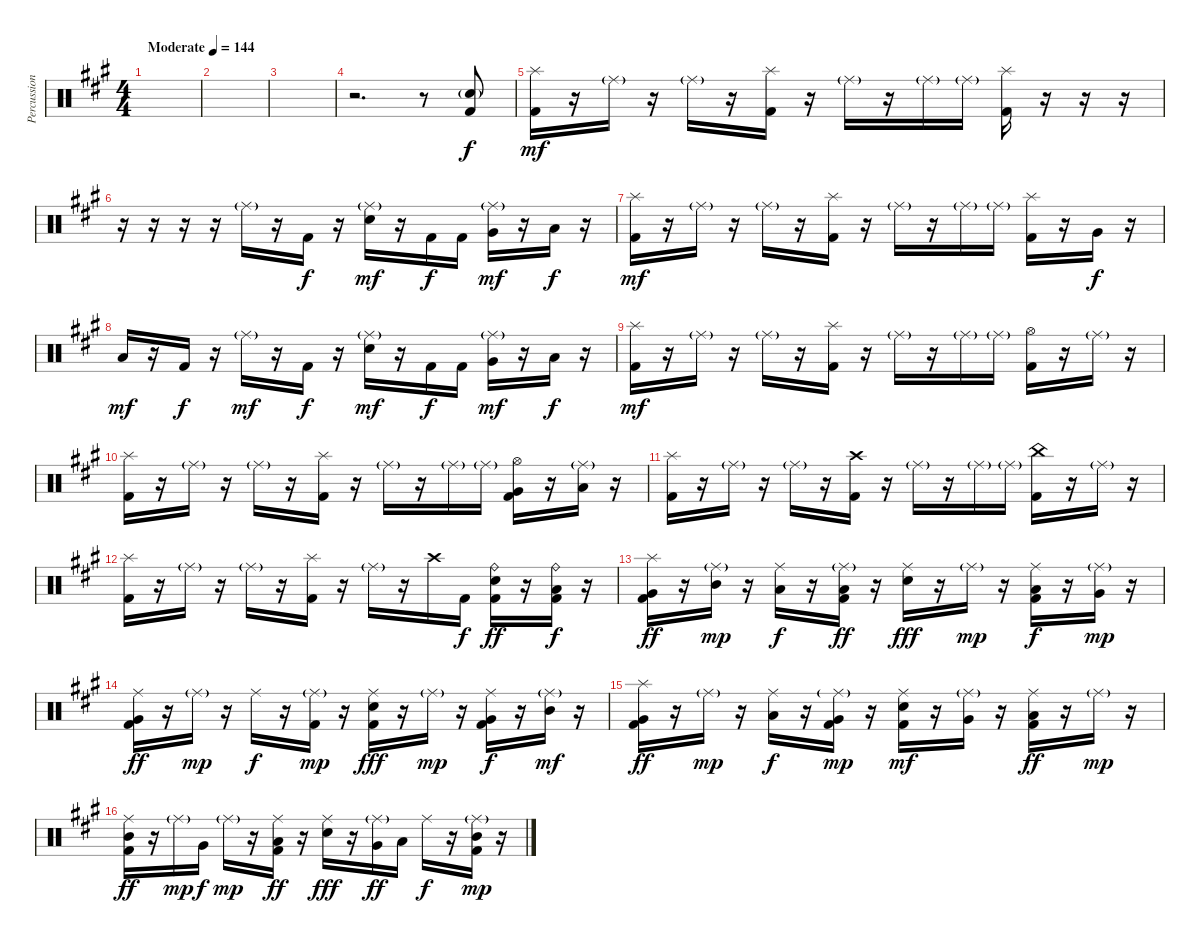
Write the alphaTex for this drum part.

\track ("Percussion" "Percussion") {instrument percussion}
\staff {score}
\articulation defaults
\ts (4 4)
\tempo (144 "Moderate")
\clef neutral
\ks f#minor
|
|
|
r.2{d} r.8 ("Snare (hit) 2"{g} "Kick (hit) 2").8 |
("Splash (hit)" "Kick (hit) 2").16{dy mf} r.16 "Ride (middle)"{g}.16 r.16 "Ride (middle)"{g}.16 r.16 ("Splash (hit)" "Kick (hit) 2").16 r.16 "Ride (middle)"{g}.16 r.16 "Ride (middle)"{g}.16 "Ride (middle)"{g}.16 ("Splash (hit)" "Kick (hit) 2").16 r.16 r.16 r.16 |
r.16 r.16 r.16 r.16 "Ride (middle)"{g}.16 r.16 "Kick (hit) 2".16{dy f} r.16 ("Ride (middle)"{g} "Snare (hit) 2").16{dy mf} r.16 "Kick (hit) 2".16{dy f} "Kick (hit) 2".16 ("Ride (middle)"{g} "Very Low Tom (hit)").16{dy mf} r.16 "Low Floor Tom (hit)".16{dy f} r.16 |
("Splash (hit)" "Kick (hit) 2").16{dy mf} r.16 "Ride (middle)"{g}.16 r.16 "Ride (middle)"{g}.16 r.16 ("Splash (hit)" "Kick (hit) 2").16 r.16 "Ride (middle)"{g}.16 r.16 "Ride (middle)"{g}.16 "Ride (middle)"{g}.16 ("Splash (hit)" "Kick (hit) 2").16 r.16 "Very Low Tom (hit)".16{dy f} r.16 |
"Low Floor Tom (hit)".16{dy mf} r.16 "Kick (hit) 2".16{dy f} r.16 "Ride (middle)"{g}.16{dy mf} r.16 "Kick (hit) 2".16{dy f} r.16 ("Ride (middle)"{g} "Snare (hit) 2").16{dy mf} r.16 "Kick (hit) 2".16{dy f} "Kick (hit) 2".16 ("Ride (middle)"{g} "Very Low Tom (hit)").16{dy mf} r.16 "Low Floor Tom (hit)".16{dy f} r.16 |
("Splash (hit)" "Kick (hit) 2").16{dy mf} r.16 "Ride (middle)"{g}.16 r.16 "Ride (middle)"{g}.16 r.16 ("Splash (hit)" "Kick (hit) 2").16 r.16 "Ride (middle)"{g}.16 r.16 "Ride (middle)"{g}.16 "Ride (middle)"{g}.16 ("Hi-Hat (open)" "Kick (hit) 2").16 r.16 "Ride (middle)"{g}.16 r.16 |
("Splash (hit)" "Kick (hit) 2").16 r.16 "Ride (middle)"{g}.16 r.16 "Ride (middle)"{g}.16 r.16 ("Splash (hit)" "Kick (hit) 2").16 r.16 "Ride (middle)"{g}.16 r.16 "Ride (middle)"{g}.16 "Ride (middle)"{g}.16 ("Hi-Hat (open)" "Very Low Tom (hit)" "Kick (hit) 2").16 r.16 ("Ride (middle)"{g} "Low Floor Tom (hit)").16 r.16 |
("Splash (hit)" "Kick (hit) 2").16 r.16 "Ride (middle)"{g}.16 r.16 "Ride (middle)"{g}.16 r.16 ("Crash high (hit)" "Kick (hit) 2").16 r.16 "Ride (middle)"{g}.16 r.16 "Ride (middle)"{g}.16 "Ride (middle)"{g}.16 ("China (hit)" "Kick (hit) 2").16 r.16 "Ride (middle)"{g}.16 r.16 |
("Splash (hit)" "Kick (hit) 2").16 r.16 "Ride (middle)"{g}.16 r.16 "Ride (middle)"{g}.16 r.16 ("Splash (hit)" "Kick (hit) 2").16 r.16 "Ride (middle)"{g}.16 r.16 "Crash high (hit)".16 "Kick (hit) 2".16{dy f} ("Ride (bell)" "Snare (hit) 2" "Kick (hit) 2").16{dy ff} r.16 ("Ride (bell)" "Low Floor Tom (hit)" "Kick (hit) 2").16{dy f} r.16 |
("Splash (hit)" "Very Low Tom (hit)" "Kick (hit) 2").16{dy ff} r.16 ("Ride (middle)"{g} "Mid Tom (hit)").16{dy mp} r.16 ("Ride (middle)" "Low Tom (hit)").16{dy f} r.16 ("Ride (middle)"{g} "Low Floor Tom (hit)" "Kick (hit) 2").16{dy ff} r.16 ("Ride (middle)" "Snare (hit) 2").16{dy fff} r.16 "Ride (middle)"{g}.16{dy mp} r.16 ("Ride (middle)" "Low Tom (hit)" "Kick (hit) 2").16{dy f} r.16 ("Ride (middle)"{g} "Very Low Tom (hit)").16{dy mp} r.16 |
("Ride (middle)" "Very Low Tom (hit)" "Kick (hit) 2").16{dy ff} r.16 "Ride (middle)"{g}.16{dy mp} r.16 "Ride (middle)".16{dy f} r.16 ("Ride (middle)"{g} "Kick (hit) 2").16{dy mp} r.16 ("Ride (middle)" "Snare (hit) 2" "Kick (hit) 2").16{dy fff} r.16 "Ride (middle)"{g}.16{dy mp} r.16 ("Ride (middle)" "Very Low Tom (hit)" "Kick (hit) 2").16{dy f} r.16 ("Ride (middle)"{g} "Mid Tom (hit)").16{dy mf} r.16 |
("Splash (hit)" "Very Low Tom (hit)" "Kick (hit) 2").16{dy ff} r.16 "Ride (middle)"{g}.16{dy mp} r.16 ("Ride (middle)" "Low Tom (hit)").16{dy f} r.16 ("Ride (middle)"{g} "Very Low Tom (hit)" "Kick (hit) 2").16{dy mp} r.16 ("Ride (middle)" "Snare (hit) 2" "Kick (hit) 2").16{dy mf} r.16 ("Ride (middle)"{g} "Very Low Tom (hit)").16 r.16 ("Ride (middle)" "Low Floor Tom (hit)" "Kick (hit) 2").16{dy ff} r.16 "Ride (middle)"{g}.16{dy mp} r.16 |
("Ride (middle)" "Mid Tom (hit)" "Kick (hit) 2").16{dy ff} r.16 "Ride (middle)"{g}.16{dy mp} "Very Low Tom (hit)".16{dy f} "Ride (middle)"{g}.16{dy mp} r.16 ("Ride (middle)" "Low Tom (hit)" "Kick (hit) 2").16{dy ff} r.16 ("Ride (middle)" "Snare (hit) 2").16{dy fff} r.16 ("Ride (middle)"{g} "Very Low Tom (hit)").16{dy ff} "Low Tom (hit)".16 "Ride (middle)".16{dy f} r.16 ("Ride (middle)"{g} "Mid Tom (hit)" "Kick (hit) 2").16{dy mp} r.16
